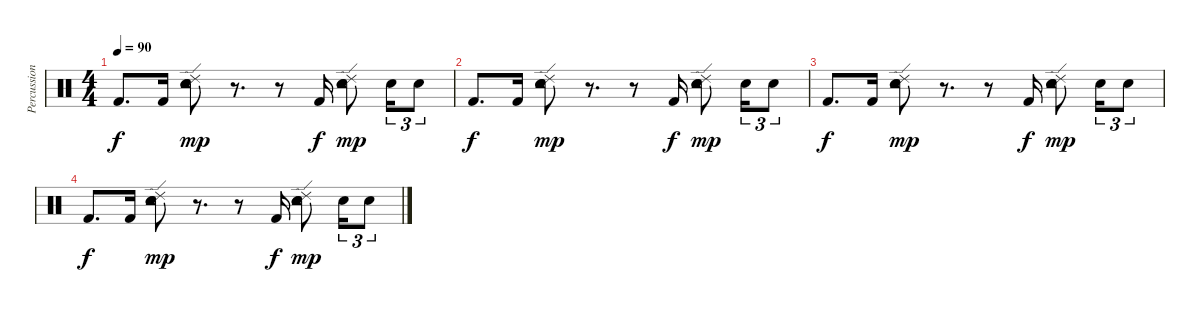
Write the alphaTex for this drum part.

\track ("Percussion" "Percussion") {instrument percussion}
\staff {score}
\articulation defaults
\ts (4 4)
\tempo 90
\clef neutral
\ks c "Kick (hit) 2".8{d dy f} "Kick (hit) 2".16
("Ride (edge) 2" "Tambourine (hit)" "Electric Snare (hit)" "Snare (hit) 2").8{dy mp} r.8{d} r.8 "Kick (hit) 2".16{dy f} ("Ride (edge) 2" "Tambourine (hit)" "Electric Snare (hit)" "Snare (hit) 2").8{dy mp} "Electric Snare (hit)".16{tu (3 2)} "Electric Snare (hit)".8{tu (3 2)} |
"Kick (hit) 2".8{d dy f} "Kick (hit) 2".16 ("Ride (edge) 2" "Tambourine (hit)" "Electric Snare (hit)" "Snare (hit) 2").8{dy mp} r.8{d} r.8 "Kick (hit) 2".16{dy f} ("Ride (edge) 2" "Tambourine (hit)" "Electric Snare (hit)" "Snare (hit) 2").8{dy mp} "Electric Snare (hit)".16{tu (3 2)} "Electric Snare (hit)".8{tu (3 2)} |
"Kick (hit) 2".8{d dy f} "Kick (hit) 2".16 ("Ride (edge) 2" "Tambourine (hit)" "Electric Snare (hit)" "Snare (hit) 2").8{dy mp} r.8{d} r.8 "Kick (hit) 2".16{dy f} ("Ride (edge) 2" "Tambourine (hit)" "Electric Snare (hit)" "Snare (hit) 2").8{dy mp} "Electric Snare (hit)".16{tu (3 2)} "Electric Snare (hit)".8{tu (3 2)} |
"Kick (hit) 2".8{d dy f} "Kick (hit) 2".16 ("Ride (edge) 2" "Tambourine (hit)" "Electric Snare (hit)" "Snare (hit) 2").8{dy mp} r.8{d} r.8 "Kick (hit) 2".16{dy f} ("Ride (edge) 2" "Tambourine (hit)" "Electric Snare (hit)" "Snare (hit) 2").8{dy mp} "Electric Snare (hit)".16{tu (3 2)} "Electric Snare (hit)".8{tu (3 2)}
